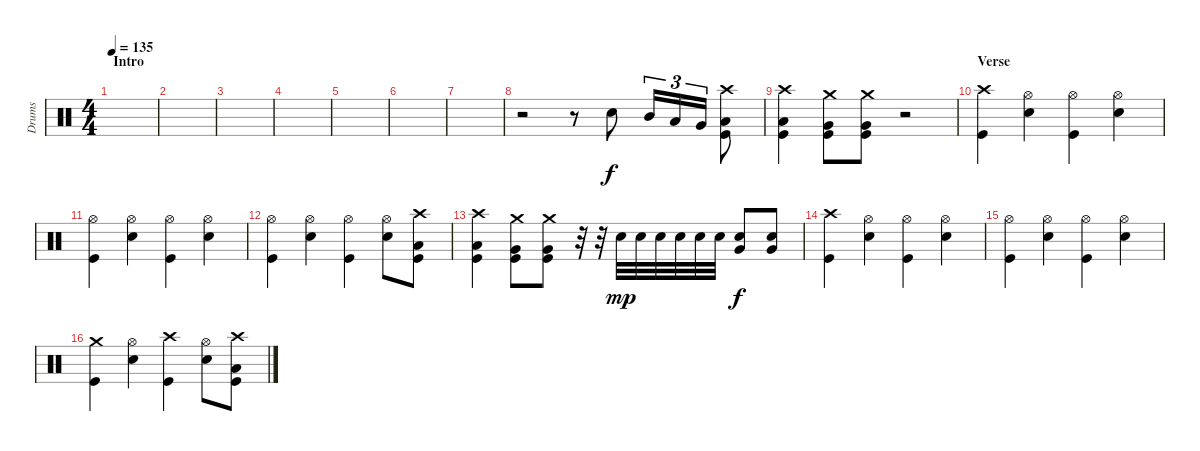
\track ("Drums" "Drums") {instrument percussion}
\staff {score}
\articulation defaults
\ts (4 4)
\section ("" "Intro")
\tempo 135
\clef neutral
\ks c
|
|
|
|
|
|
|
r.2 r.8 "Snare (hit) 2".8 "Mid Tom (hit)".16{tu (3 2)} "Low Tom (hit)".16{tu (3 2)} "Very Low Tom (hit)".16{tu (3 2)} ("Crash high (hit)" "Low Floor Tom (hit)" "Kick (hit)").8 |
("Crash high (hit)" "Low Floor Tom (hit)" "Kick (hit)").4 ("Crash medium (hit)" "Very Low Tom (hit)" "Kick (hit)").8 ("Crash medium (hit)" "Very Low Tom (hit)" "Kick (hit)").8 r.2 |
\section ("" "Verse")
("Crash high (hit)" "Kick (hit)").4 ("Hi-Hat (open)" "Snare (hit) 2").4 ("Hi-Hat (open)" "Kick (hit)").4 ("Hi-Hat (open)" "Snare (hit) 2").4 |
("Hi-Hat (open)" "Kick (hit)").4 ("Hi-Hat (open)" "Snare (hit) 2").4 ("Hi-Hat (open)" "Kick (hit)").4 ("Hi-Hat (open)" "Snare (hit) 2").4 |
("Hi-Hat (open)" "Kick (hit)").4 ("Hi-Hat (open)" "Snare (hit) 2").4 ("Hi-Hat (open)" "Kick (hit)").4 ("Hi-Hat (open)" "Snare (hit) 2").8 ("Crash high (hit)" "Low Floor Tom (hit)" "Kick (hit)").8 |
("Crash high (hit)" "Low Floor Tom (hit)" "Kick (hit)").4 ("Crash medium (hit)" "Very Low Tom (hit)" "Kick (hit)").8 ("Crash medium (hit)" "Very Low Tom (hit)" "Kick (hit)").8 r.32 r.32 "Snare (hit) 2".32{dy mp} "Snare (hit) 2".32 "Snare (hit) 2".32 "Snare (hit) 2".32 "Snare (hit) 2".32 "Snare (hit) 2".32 ("Snare (hit) 2" "Very Low Tom (hit)").8{dy f} ("Snare (hit) 2" "Very Low Tom (hit)").8 |
("Crash high (hit)" "Kick (hit)").4 ("Hi-Hat (open)" "Snare (hit) 2").4 ("Hi-Hat (open)" "Kick (hit)").4 ("Hi-Hat (open)" "Snare (hit) 2").4 |
("Hi-Hat (open)" "Kick (hit)").4 ("Hi-Hat (open)" "Snare (hit) 2").4 ("Hi-Hat (open)" "Kick (hit)").4 ("Hi-Hat (open)" "Snare (hit) 2").4 |
("Crash medium (hit)" "Kick (hit)").4 ("Hi-Hat (open)" "Snare (hit) 2").4 ("Crash high (hit)" "Kick (hit)").4 ("Hi-Hat (open)" "Snare (hit) 2").8 ("Crash high (hit)" "Low Floor Tom (hit)" "Kick (hit)").8
